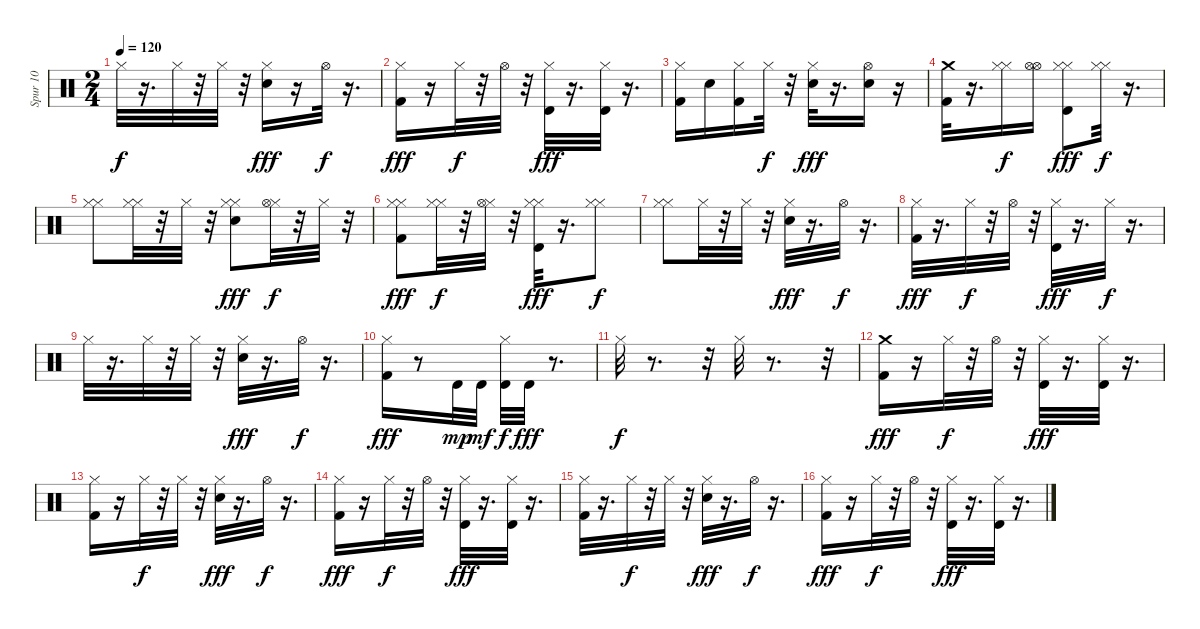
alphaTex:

\track ("Spur 10" "Spur 10") {instrument percussion}
\staff {score}
\articulation defaults
\ts (2 4)
\tempo 120
\clef neutral
\ks c "Hi-Hat (closed)".32{dy f}
r.16{d} "Hi-Hat (closed)".32 r.32 "Hi-Hat (closed)".32 r.32 ("Electric Snare (hit)" "Hi-Hat (closed)").16{dy fff} r.16 "Hi-Hat (open)".32{dy f} r.16{d} |
("Kick (hit) 2" "Hi-Hat (closed)").16{dy fff} r.16 "Hi-Hat (closed)".32{dy f} r.32 "Hi-Hat (open)".32 r.32 ("Timbale high (hit)" "Hi-Hat (closed)").32{dy fff} r.16{d} ("Timbale high (hit)" "Hi-Hat (closed)").32 r.16{d} |
("Kick (hit) 2" "Hi-Hat (closed)").16 "Electric Snare (hit)".16 ("Kick (hit) 2" "Hi-Hat (closed)").16 "Hi-Hat (closed)".32{dy f} r.32 ("Electric Snare (hit)" "Hi-Hat (closed)").32{dy fff} r.16{d} ("Electric Snare (hit)" "Hi-Hat (open)").16 r.16 |
("Kick (hit) 2" "Crash medium (hit)").32 r.16{d} ("Hi-Hat (closed)" "Hi-Hat (closed)").16{dy f} ("Hi-Hat (open)" "Hi-Hat (open)").16 ("Hi-Hat (closed)" "Timbale high (hit)" "Hi-Hat (closed)").8{dy fff} ("Hi-Hat (closed)" "Hi-Hat (closed)").32{dy f} r.16{d} |
("Hi-Hat (closed)" "Hi-Hat (closed)").8 ("Hi-Hat (closed)" "Hi-Hat (closed)").32 r.32 "Hi-Hat (closed)".32 r.32 ("Hi-Hat (closed)" "Electric Snare (hit)" "Hi-Hat (closed)").8{dy fff} ("Hi-Hat (closed)" "Hi-Hat (open)").32{dy f} r.32 "Hi-Hat (closed)".32 r.32 |
("Kick (hit) 2" "Hi-Hat (closed)" "Hi-Hat (closed)").8{dy fff} ("Hi-Hat (closed)" "Hi-Hat (closed)").32{dy f} r.32 ("Hi-Hat (closed)" "Hi-Hat (open)").32 r.32 ("Timbale high (hit)" "Hi-Hat (closed)" "Hi-Hat (closed)").32{dy fff} r.16{d} ("Hi-Hat (closed)" "Hi-Hat (closed)").8{dy f} |
("Hi-Hat (closed)" "Hi-Hat (closed)").8 "Hi-Hat (closed)".32 r.32 "Hi-Hat (closed)".32 r.32 ("Electric Snare (hit)" "Hi-Hat (closed)").32{dy fff} r.16{d} "Hi-Hat (open)".32{dy f} r.16{d} |
("Kick (hit) 2" "Hi-Hat (closed)").32{dy fff} r.16{d} "Hi-Hat (closed)".32{dy f} r.32 "Hi-Hat (open)".32 r.32 ("Timbale high (hit)" "Hi-Hat (closed)").32{dy fff} r.16{d} "Hi-Hat (closed)".32{dy f} r.16{d} |
"Hi-Hat (closed)".32 r.16{d} "Hi-Hat (closed)".32 r.32 "Hi-Hat (closed)".32 r.32 ("Electric Snare (hit)" "Hi-Hat (closed)").32{dy fff} r.16{d} "Hi-Hat (open)".32{dy f} r.16{d} |
("Kick (hit) 2" "Hi-Hat (closed)").16{dy fff} r.8 "Timbale high (hit)".32{dy mp} "Timbale high (hit)".32{dy mf} ("Timbale high (hit)" "Hi-Hat (closed)").32{dy f} "Timbale high (hit)".32{dy fff} r.8{d} |
"Hi-Hat (closed)".32{dy f} r.8{d} r.32 "Hi-Hat (closed)".32 r.8{d} r.32 |
("Kick (hit) 2" "Crash medium (hit)").16{dy fff} r.16 "Hi-Hat (closed)".32{dy f} r.32 "Hi-Hat (open)".32 r.32 ("Timbale high (hit)" "Hi-Hat (closed)").32{dy fff} r.16{d} ("Timbale high (hit)" "Hi-Hat (closed)").32 r.16{d} |
("Kick (hit) 2" "Hi-Hat (closed)").16 r.16 "Hi-Hat (closed)".32{dy f} r.32 "Hi-Hat (closed)".32 r.32 ("Electric Snare (hit)" "Hi-Hat (closed)").32{dy fff} r.16{d} "Hi-Hat (open)".32{dy f} r.16{d} |
("Kick (hit) 2" "Hi-Hat (closed)").16{dy fff} r.16 "Hi-Hat (closed)".32{dy f} r.32 "Hi-Hat (open)".32 r.32 ("Timbale high (hit)" "Hi-Hat (closed)").32{dy fff} r.16{d} ("Timbale high (hit)" "Hi-Hat (closed)").32 r.16{d} |
("Kick (hit) 2" "Hi-Hat (closed)").32 r.16{d} "Hi-Hat (closed)".32{dy f} r.32 "Hi-Hat (closed)".32 r.32 ("Electric Snare (hit)" "Hi-Hat (closed)").32{dy fff} r.16{d} "Hi-Hat (open)".32{dy f} r.16{d} |
("Kick (hit) 2" "Hi-Hat (closed)").16{dy fff} r.16 "Hi-Hat (closed)".32{dy f} r.32 "Hi-Hat (open)".32 r.32 ("Timbale high (hit)" "Hi-Hat (closed)").32{dy fff} r.16{d} ("Timbale high (hit)" "Hi-Hat (closed)").32 r.16{d}
